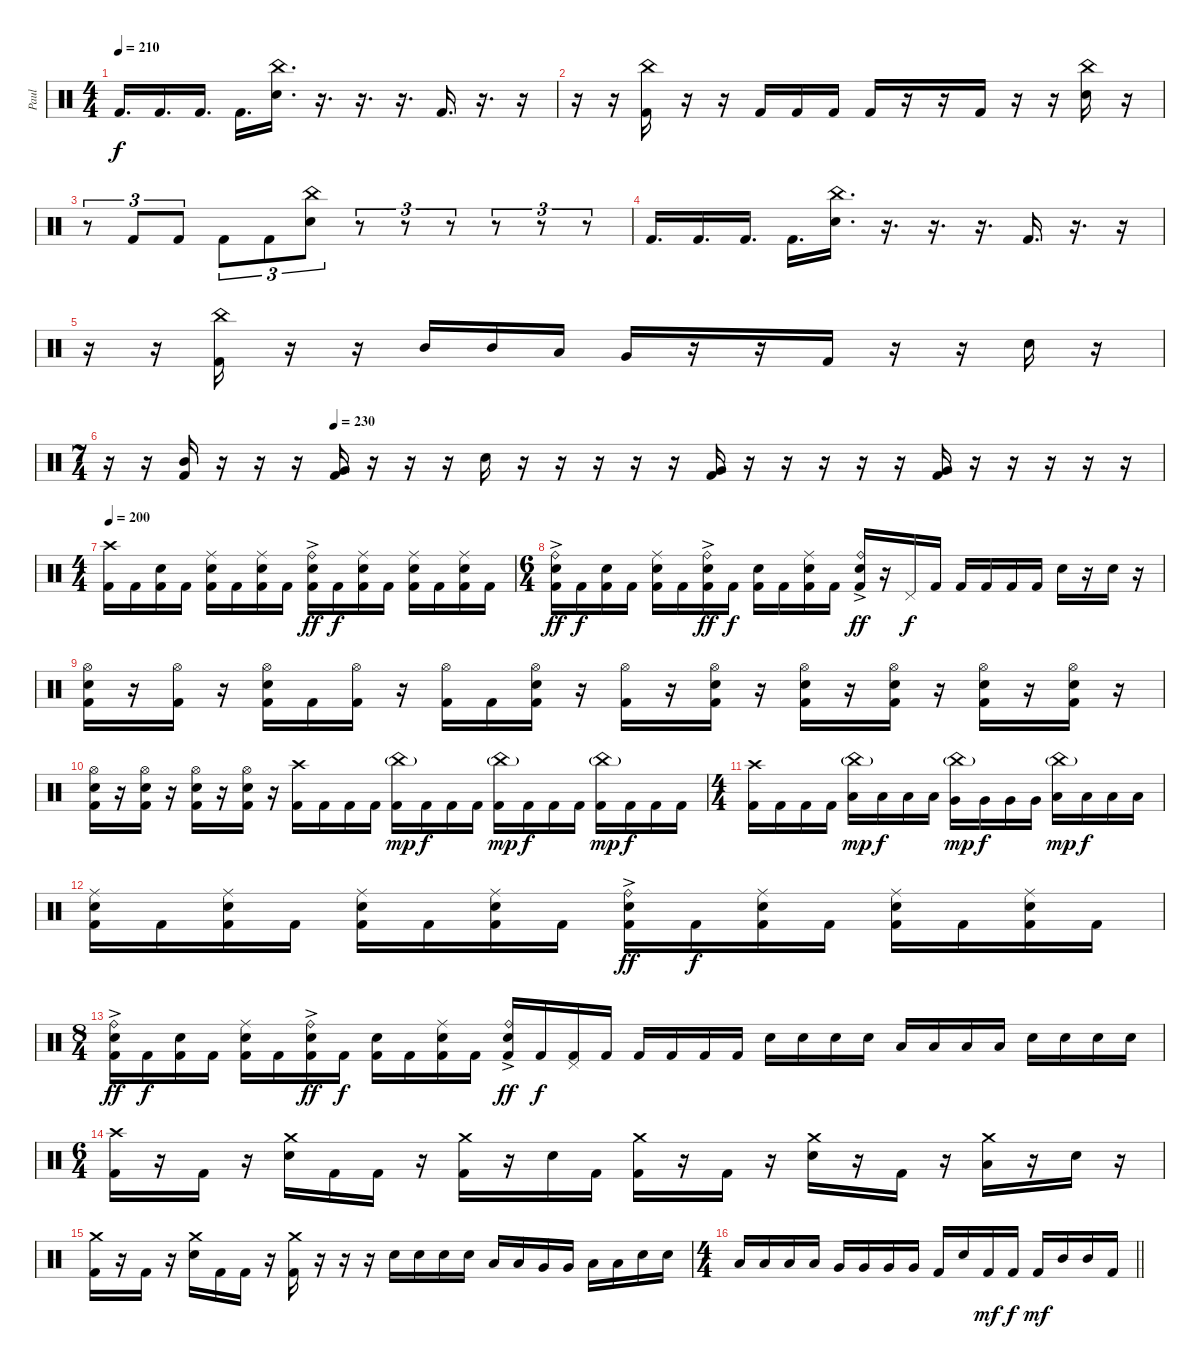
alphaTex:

\track ("Paul " "Paul ") {instrument percussion}
\staff {score}
\articulation defaults
\ts (4 4)
\tempo 210
\clef neutral
\ks c "Kick (hit) 2".16{d dy f} "Kick (hit) 2".16{d} "Kick (hit) 2".16{d} "Kick (hit) 2".16{d}
("Electric Snare (hit)" "China (hit)").16{d} r.16{d} r.16{d} r.16{d} "Kick (hit) 2".16{d} r.16{d} r.16 |
r.16 r.16 ("Kick (hit) 2" "China (hit)").16 r.16 r.16 "Kick (hit) 2".16 "Kick (hit) 2".16 "Kick (hit) 2".16 "Kick (hit) 2".16 r.16 r.16 "Kick (hit) 2".16 r.16 r.16 ("Electric Snare (hit)" "China (hit)").16 r.16 |
r.8{tu (3 2)} "Kick (hit) 2".8{tu (3 2)} "Kick (hit) 2".8{tu (3 2)} "Kick (hit) 2".8{tu (3 2)} "Kick (hit) 2".8{tu (3 2)} ("Electric Snare (hit)" "China (hit)").8{tu (3 2)} r.8{tu (3 2)} r.8{tu (3 2)} r.8{tu (3 2)} r.8{tu (3 2)} r.8{tu (3 2)} r.8{tu (3 2)} |
"Kick (hit) 2".16{d} "Kick (hit) 2".16{d} "Kick (hit) 2".16{d} "Kick (hit) 2".16{d} ("Electric Snare (hit)" "China (hit)").16{d} r.16{d} r.16{d} r.16{d} "Kick (hit) 2".16{d} r.16{d} r.16 |
r.16 r.16 ("Kick (hit) 2" "China (hit)").16 r.16 r.16 "Mid Tom (hit)".16 "Mid Tom (hit)".16 "Low Tom (hit)".16 "Very Low Tom (hit)".16 r.16 r.16 "Kick (hit) 2".16 r.16 r.16 "Electric Snare (hit)".16 r.16 |
\ts (7 4)
\tempo (230 0.21428571428571427)
r.16 r.16 ("Mid Tom (hit)" "Kick (hit) 2").16 r.16 r.16 r.16 ("Very Low Tom (hit)" "Kick (hit) 2").16 r.16 r.16 r.16 "Electric Snare (hit)".16 r.16 r.16 r.16 r.16 r.16 ("Very Low Tom (hit)" "Kick (hit) 2").16 r.16 r.16 r.16 r.16 r.16 ("Kick (hit) 2" "Very Low Tom (hit)").16 r.16 r.16 r.16 r.16 r.16 |
\ts (4 4)
\tempo 200
("Kick (hit) 2" "Crash high (hit)").16 "Kick (hit) 2".16 ("Kick (hit) 2" "Electric Snare (hit)").16 "Kick (hit) 2".16 ("Kick (hit) 2" "Ride (middle)" "Electric Snare (hit)").16 "Kick (hit) 2".16 ("Kick (hit) 2" "Ride (middle)" "Electric Snare (hit)").16 "Kick (hit) 2".16 ("Kick (hit) 2" "Ride (bell)"{ac} "Electric Snare (hit)").16{dy ff} "Kick (hit) 2".16{dy f} ("Kick (hit) 2" "Ride (middle)" "Electric Snare (hit)").16 "Kick (hit) 2".16 ("Kick (hit) 2" "Ride (middle)" "Electric Snare (hit)").16 "Kick (hit) 2".16 ("Kick (hit) 2" "Ride (middle)" "Electric Snare (hit)").16 "Kick (hit) 2".16 |
\ts (6 4)
("Kick (hit) 2" "Ride (bell)"{ac} "Electric Snare (hit)").16{dy ff} "Kick (hit) 2".16{dy f} ("Kick (hit) 2" "Electric Snare (hit)").16 "Kick (hit) 2".16 ("Kick (hit) 2" "Ride (middle)" "Electric Snare (hit)").16 "Kick (hit) 2".16 ("Kick (hit) 2" "Ride (bell)"{ac} "Electric Snare (hit)").16{dy ff} "Kick (hit) 2".16{dy f} ("Kick (hit) 2" "Electric Snare (hit)").16 "Kick (hit) 2".16 ("Kick (hit) 2" "Ride (middle)" "Electric Snare (hit)").16 "Kick (hit) 2".16 ("Kick (hit) 2" "Ride (bell)"{ac} "Electric Snare (hit)").16{dy ff} r.16 "Pedal Hi-Hat (hit)".16{dy f} "Kick (hit) 2".16 "Kick (hit) 2".16 "Kick (hit) 2".16 "Kick (hit) 2".16 "Kick (hit) 2".16 "Electric Snare (hit)".16 r.16 "Electric Snare (hit)".16 r.16 |
("Kick (hit) 2" "Electric Snare (hit)" "Hi-Hat (open)").16 r.16 ("Kick (hit) 2" "Hi-Hat (open)").16 r.16 ("Kick (hit) 2" "Electric Snare (hit)" "Hi-Hat (open)").16 "Kick (hit) 2".16 ("Kick (hit) 2" "Hi-Hat (open)").16 r.16 ("Kick (hit) 2" "Hi-Hat (open)").16 "Kick (hit) 2".16 ("Kick (hit) 2" "Electric Snare (hit)" "Hi-Hat (open)").16 r.16 ("Kick (hit) 2" "Hi-Hat (open)").16 r.16 ("Kick (hit) 2" "Electric Snare (hit)" "Hi-Hat (open)").16 r.16 ("Kick (hit) 2" "Electric Snare (hit)" "Hi-Hat (open)").16 r.16 ("Kick (hit) 2" "Electric Snare (hit)" "Hi-Hat (open)").16 r.16 ("Kick (hit) 2" "Electric Snare (hit)" "Hi-Hat (open)").16 r.16 ("Kick (hit) 2" "Electric Snare (hit)" "Hi-Hat (open)").16 r.16 |
("Kick (hit) 2" "Electric Snare (hit)" "Hi-Hat (open)").16 r.16 ("Kick (hit) 2" "Electric Snare (hit)" "Hi-Hat (open)").16 r.16 ("Kick (hit) 2" "Electric Snare (hit)" "Hi-Hat (open)").16 r.16 ("Kick (hit) 2" "Electric Snare (hit)" "Hi-Hat (open)").16 r.16 ("Kick (hit) 2" "Crash high (hit)").16 "Kick (hit) 2".16 "Kick (hit) 2".16 "Kick (hit) 2".16 ("Kick (hit) 2" "China (hit)"{g}).16{dy mp} "Kick (hit) 2".16{dy f} "Kick (hit) 2".16 "Kick (hit) 2".16 ("Kick (hit) 2" "China (hit)"{g}).16{dy mp} "Kick (hit) 2".16{dy f} "Kick (hit) 2".16 "Kick (hit) 2".16 ("Kick (hit) 2" "China (hit)"{g}).16{dy mp} "Kick (hit) 2".16{dy f} "Kick (hit) 2".16 "Kick (hit) 2".16 |
\ts (4 4)
("Kick (hit) 2" "Crash high (hit)").16 "Kick (hit) 2".16 "Kick (hit) 2".16 "Kick (hit) 2".16 ("Low Tom (hit)" "China (hit)"{g}).16{dy mp} "Low Tom (hit)".16{dy f} "Low Tom (hit)".16 "Low Tom (hit)".16 ("Very Low Tom (hit)" "China (hit)"{g}).16{dy mp} "Very Low Tom (hit)".16{dy f} "Very Low Tom (hit)".16 "Very Low Tom (hit)".16 ("Low Floor Tom (hit)" "China (hit)"{g}).16{dy mp} "Low Floor Tom (hit)".16{dy f} "Low Floor Tom (hit)".16 "Low Floor Tom (hit)".16 |
("Kick (hit) 2" "Ride (middle)" "Electric Snare (hit)").16 "Kick (hit) 2".16 ("Kick (hit) 2" "Ride (middle)" "Electric Snare (hit)").16 "Kick (hit) 2".16 ("Kick (hit) 2" "Ride (middle)" "Electric Snare (hit)").16 "Kick (hit) 2".16 ("Kick (hit) 2" "Ride (middle)" "Electric Snare (hit)").16 "Kick (hit) 2".16 ("Kick (hit) 2" "Ride (bell)"{ac} "Electric Snare (hit)").16{dy ff} "Kick (hit) 2".16{dy f} ("Kick (hit) 2" "Ride (middle)" "Electric Snare (hit)").16 "Kick (hit) 2".16 ("Kick (hit) 2" "Ride (middle)" "Electric Snare (hit)").16 "Kick (hit) 2".16 ("Kick (hit) 2" "Ride (middle)" "Electric Snare (hit)").16 "Kick (hit) 2".16 |
\ts (8 4)
("Kick (hit) 2" "Ride (bell)"{ac} "Electric Snare (hit)").16{dy ff} "Kick (hit) 2".16{dy f} ("Kick (hit) 2" "Electric Snare (hit)").16 "Kick (hit) 2".16 ("Kick (hit) 2" "Ride (middle)" "Electric Snare (hit)").16 "Kick (hit) 2".16 ("Kick (hit) 2" "Ride (bell)"{ac} "Electric Snare (hit)").16{dy ff} "Kick (hit) 2".16{dy f} ("Kick (hit) 2" "Electric Snare (hit)").16 "Kick (hit) 2".16 ("Kick (hit) 2" "Ride (middle)" "Electric Snare (hit)").16 "Kick (hit) 2".16 ("Kick (hit) 2" "Ride (bell)"{ac} "Electric Snare (hit)").16{dy ff} "Kick (hit) 2".16{dy f} ("Kick (hit) 2" "Pedal Hi-Hat (hit)").16 "Kick (hit) 2".16 "Kick (hit) 2".16 "Kick (hit) 2".16 "Kick (hit) 2".16 "Kick (hit) 2".16 "Electric Snare (hit)".16 "Electric Snare (hit)".16 "Electric Snare (hit)".16 "Electric Snare (hit)".16 "Low Tom (hit)".16 "Low Tom (hit)".16 "Low Tom (hit)".16 "Low Tom (hit)".16 "Electric Snare (hit)".16 "Electric Snare (hit)".16 "Electric Snare (hit)".16 "Electric Snare (hit)".16 |
\ts (6 4)
("Kick (hit) 2" "Crash high (hit)").16 r.16 "Kick (hit) 2".16 r.16 ("Electric Snare (hit)" "Crash medium (hit)").16 "Kick (hit) 2".16 "Kick (hit) 2".16 r.16 ("Kick (hit) 2" "Crash medium (hit)").16 r.16 "Electric Snare (hit)".16 "Kick (hit) 2".16 ("Kick (hit) 2" "Crash medium (hit)").16 r.16 "Kick (hit) 2".16 r.16 ("Electric Snare (hit)" "Crash medium (hit)").16 r.16 "Kick (hit) 2".16 r.16 ("Low Floor Tom (hit)" "Crash medium (hit)").16 r.16 "Electric Snare (hit)".16 r.16 |
("Kick (hit) 2" "Crash medium (hit)").16 r.16 "Kick (hit) 2".16 r.16 ("Electric Snare (hit)" "Crash medium (hit)").16 "Kick (hit) 2".16 "Kick (hit) 2".16 r.16 ("Kick (hit) 2" "Crash medium (hit)").16 r.16 r.16 r.16 "Electric Snare (hit)".16 "Electric Snare (hit)".16 "Electric Snare (hit)".16 "Electric Snare (hit)".16 "Low Tom (hit)".16 "Low Tom (hit)".16 "Very Low Tom (hit)".16 "Very Low Tom (hit)".16 "Low Floor Tom (hit)".16 "Low Floor Tom (hit)".16 "Electric Snare (hit)".16 "Electric Snare (hit)".16 |
\ts (4 4)
\barLineRight lightlight "Low Tom (hit)".16 "Low Tom (hit)".16 "Low Tom (hit)".16 "Low Tom (hit)".16 "Very Low Tom (hit)".16 "Very Low Tom (hit)".16 "Very Low Tom (hit)".16 "Very Low Tom (hit)".16 "Kick (hit) 2".16 "Electric Snare (hit)".16 "Kick (hit) 2".16{dy mf} "Kick (hit) 2".16{dy f} "Kick (hit) 2".16{dy mf} "Mid Tom (hit)".16 "Mid Tom (hit)".16 "Kick (hit) 2".16
